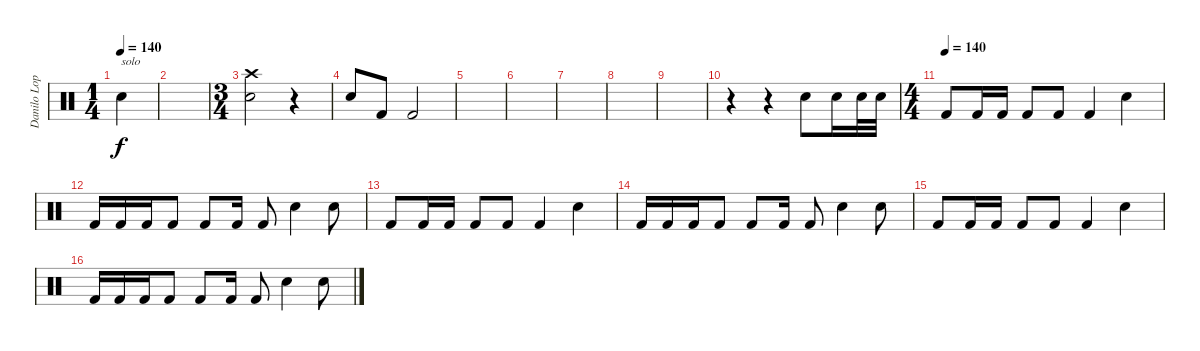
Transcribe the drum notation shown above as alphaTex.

\track ("Danilo Lopes" "Danilo Lop") {instrument percussion}
\staff {score}
\articulation defaults
\ts (1 4)
\tempo 140
\clef neutral
\ks c "Snare (hit)"{t}.4{txt "solo" dy f}
|
|
\ts (3 4)
("Crash high (hit)" "Snare (hit) 2").2 r.4 |
"Snare (hit) 2".8 "Kick (hit) 2".8 "Kick (hit) 2".2 |
|
|
|
|
|
r.4 r.4 "Snare (hit) 2".8 "Snare (hit) 2".16 "Snare (hit) 2".32 "Snare (hit) 2".32 |
\ts (4 4)
\tempo (140)
"Kick (hit) 2".8 "Kick (hit) 2".16 "Kick (hit) 2".16 "Kick (hit) 2".8 "Kick (hit) 2".8 "Kick (hit) 2".4 "Snare (hit) 2".4 |
"Kick (hit) 2".16 "Kick (hit) 2".16 "Kick (hit) 2".16 "Kick (hit) 2".8 "Kick (hit) 2".8 "Kick (hit) 2".16 "Kick (hit) 2".8 "Snare (hit) 2".4 "Snare (hit) 2".8 |
"Kick (hit) 2".8 "Kick (hit) 2".16 "Kick (hit) 2".16 "Kick (hit) 2".8 "Kick (hit) 2".8 "Kick (hit) 2".4 "Snare (hit) 2".4 |
"Kick (hit) 2".16 "Kick (hit) 2".16 "Kick (hit) 2".16 "Kick (hit) 2".8 "Kick (hit) 2".8 "Kick (hit) 2".16 "Kick (hit) 2".8 "Snare (hit) 2".4 "Snare (hit) 2".8 |
"Kick (hit) 2".8 "Kick (hit) 2".16 "Kick (hit) 2".16 "Kick (hit) 2".8 "Kick (hit) 2".8 "Kick (hit) 2".4 "Snare (hit) 2".4 |
"Kick (hit) 2".16 "Kick (hit) 2".16 "Kick (hit) 2".16 "Kick (hit) 2".8 "Kick (hit) 2".8 "Kick (hit) 2".16 "Kick (hit) 2".8 "Snare (hit) 2".4 "Snare (hit) 2".8
